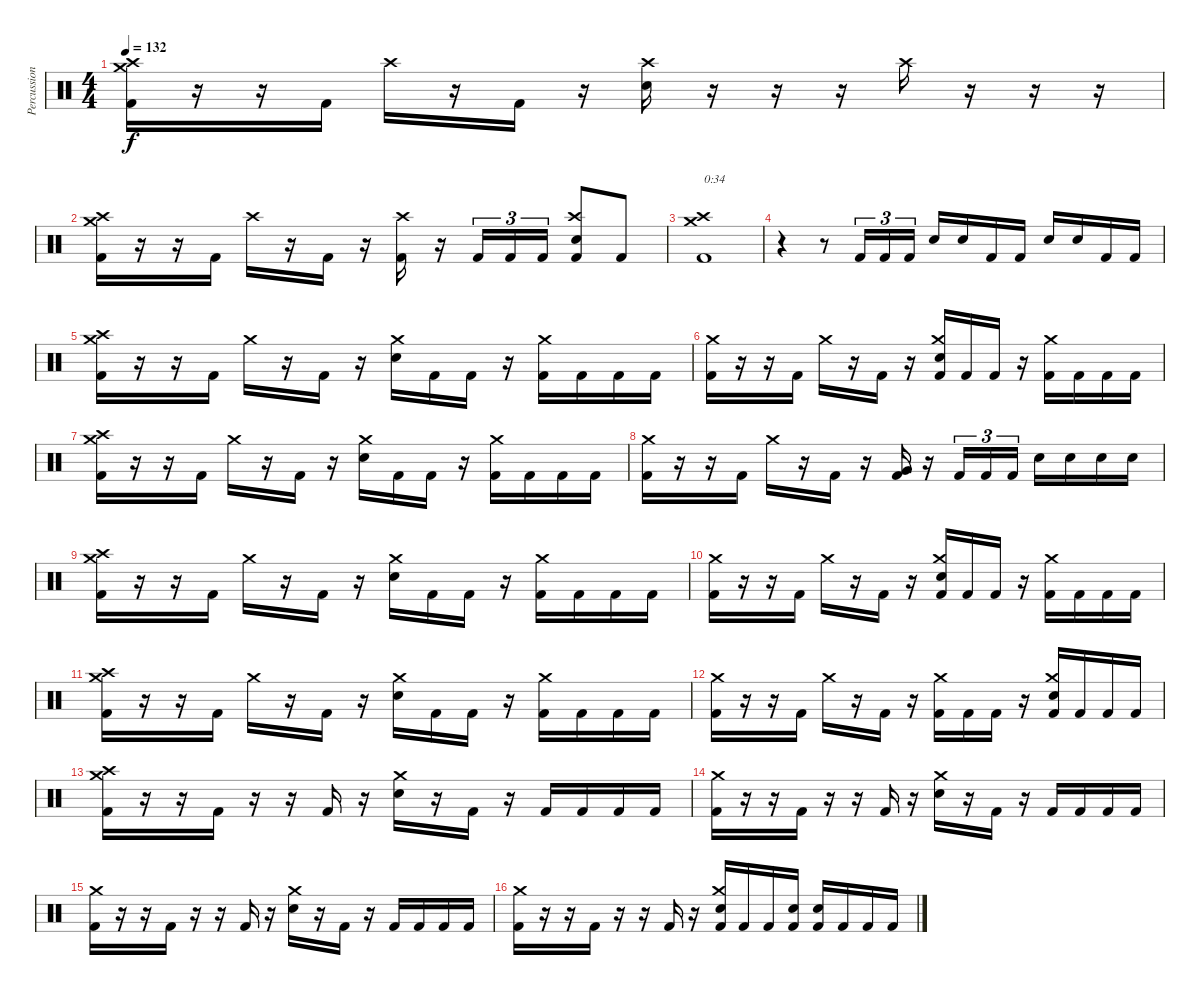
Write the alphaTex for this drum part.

\track ("Percussion" "Percussion") {instrument percussion}
\staff {score}
\articulation defaults
\ts (4 4)
\tempo 132
\clef neutral
\ks c
("Kick (hit) 2" "Crash medium (hit)" "Crash high (hit)").16{dy f} r.16 r.16 "Kick (hit) 2".16 "Crash high (hit)".16 r.16 "Kick (hit) 2".16 r.16 ("Snare (hit) 2" "Crash high (hit)").16 r.16 r.16 r.16 "Crash high (hit)".16 r.16 r.16 r.16 |
("Kick (hit) 2" "Crash medium (hit)" "Crash high (hit)").16 r.16 r.16 "Kick (hit) 2".16 "Crash high (hit)".16 r.16 "Kick (hit) 2".16 r.16 ("Kick (hit) 2" "Crash high (hit)").16 r.16 "Kick (hit) 2".16{tu (3 2)} "Kick (hit) 2".16{tu (3 2)} "Kick (hit) 2".16{tu (3 2)} ("Kick (hit) 2" "Snare (hit) 2" "Crash high (hit)").8 "Kick (hit) 2".8 |
("Kick (hit) 2" "Crash medium (hit)" "Crash high (hit)").1{txt "0:34"} |
r.4 r.8 "Kick (hit) 2".16{tu (3 2)} "Kick (hit) 2".16{tu (3 2)} "Kick (hit) 2".16{tu (3 2)} "Snare (hit) 2".16 "Snare (hit) 2".16 "Kick (hit) 2".16 "Kick (hit) 2".16 "Snare (hit) 2".16 "Snare (hit) 2".16 "Kick (hit) 2".16 "Kick (hit) 2".16 |
("Kick (hit) 2" "Crash high (hit)" "Crash medium (hit)").16 r.16 r.16 "Kick (hit) 2".16 "Crash medium (hit)".16 r.16 "Kick (hit) 2".16 r.16 ("Snare (hit) 2" "Crash medium (hit)").16 "Kick (hit) 2".16 "Kick (hit) 2".16 r.16 ("Kick (hit) 2" "Crash medium (hit)").16 "Kick (hit) 2".16 "Kick (hit) 2".16 "Kick (hit) 2".16 |
("Kick (hit) 2" "Crash medium (hit)").16 r.16 r.16 "Kick (hit) 2".16 "Crash medium (hit)".16 r.16 "Kick (hit) 2".16 r.16 ("Kick (hit) 2" "Snare (hit) 2" "Crash medium (hit)").16 "Kick (hit) 2".16 "Kick (hit) 2".16 r.16 ("Kick (hit) 2" "Crash medium (hit)").16 "Kick (hit) 2".16 "Kick (hit) 2".16 "Kick (hit) 2".16 |
("Kick (hit) 2" "Crash high (hit)" "Crash medium (hit)").16 r.16 r.16 "Kick (hit) 2".16 "Crash medium (hit)".16 r.16 "Kick (hit) 2".16 r.16 ("Snare (hit) 2" "Crash medium (hit)").16 "Kick (hit) 2".16 "Kick (hit) 2".16 r.16 ("Kick (hit) 2" "Crash medium (hit)").16 "Kick (hit) 2".16 "Kick (hit) 2".16 "Kick (hit) 2".16 |
("Kick (hit) 2" "Crash medium (hit)").16 r.16 r.16 "Kick (hit) 2".16 "Crash medium (hit)".16 r.16 "Kick (hit) 2".16 r.16 ("Kick (hit) 2" "Very Low Tom (hit)").16 r.16 "Kick (hit) 2".16{tu (3 2)} "Kick (hit) 2".16{tu (3 2)} "Kick (hit) 2".16{tu (3 2)} "Snare (hit) 2".16 "Snare (hit) 2".16 "Snare (hit) 2".16 "Snare (hit) 2".16 |
("Kick (hit) 2" "Crash high (hit)" "Crash medium (hit)").16 r.16 r.16 "Kick (hit) 2".16 "Crash medium (hit)".16 r.16 "Kick (hit) 2".16 r.16 ("Snare (hit) 2" "Crash medium (hit)").16 "Kick (hit) 2".16 "Kick (hit) 2".16 r.16 ("Kick (hit) 2" "Crash medium (hit)").16 "Kick (hit) 2".16 "Kick (hit) 2".16 "Kick (hit) 2".16 |
("Kick (hit) 2" "Crash medium (hit)").16 r.16 r.16 "Kick (hit) 2".16 "Crash medium (hit)".16 r.16 "Kick (hit) 2".16 r.16 ("Kick (hit) 2" "Snare (hit) 2" "Crash medium (hit)").16 "Kick (hit) 2".16 "Kick (hit) 2".16 r.16 ("Kick (hit) 2" "Crash medium (hit)").16 "Kick (hit) 2".16 "Kick (hit) 2".16 "Kick (hit) 2".16 |
("Kick (hit) 2" "Crash high (hit)" "Crash medium (hit)").16 r.16 r.16 "Kick (hit) 2".16 "Crash medium (hit)".16 r.16 "Kick (hit) 2".16 r.16 ("Snare (hit) 2" "Crash medium (hit)").16 "Kick (hit) 2".16 "Kick (hit) 2".16 r.16 ("Kick (hit) 2" "Crash medium (hit)").16 "Kick (hit) 2".16 "Kick (hit) 2".16 "Kick (hit) 2".16 |
("Kick (hit) 2" "Crash medium (hit)").16 r.16 r.16 "Kick (hit) 2".16 "Crash medium (hit)".16 r.16 "Kick (hit) 2".16 r.16 ("Kick (hit) 2" "Crash medium (hit)").16 "Kick (hit) 2".16 "Kick (hit) 2".16 r.16 ("Kick (hit) 2" "Snare (hit) 2" "Crash medium (hit)").16 "Kick (hit) 2".16 "Kick (hit) 2".16 "Kick (hit) 2".16 |
("Kick (hit) 2" "Crash high (hit)" "Crash medium (hit)").16 r.16 r.16 "Kick (hit) 2".16 r.16 r.16 "Kick (hit) 2".16 r.16 ("Snare (hit) 2" "Crash medium (hit)").16 r.16 "Kick (hit) 2".16 r.16 "Kick (hit) 2".16 "Kick (hit) 2".16 "Kick (hit) 2".16 "Kick (hit) 2".16 |
("Kick (hit) 2" "Crash medium (hit)").16 r.16 r.16 "Kick (hit) 2".16 r.16 r.16 "Kick (hit) 2".16 r.16 ("Snare (hit) 2" "Crash medium (hit)").16 r.16 "Kick (hit) 2".16 r.16 "Kick (hit) 2".16 "Kick (hit) 2".16 "Kick (hit) 2".16 "Kick (hit) 2".16 |
("Kick (hit) 2" "Crash medium (hit)").16 r.16 r.16 "Kick (hit) 2".16 r.16 r.16 "Kick (hit) 2".16 r.16 ("Snare (hit) 2" "Crash medium (hit)").16 r.16 "Kick (hit) 2".16 r.16 "Kick (hit) 2".16 "Kick (hit) 2".16 "Kick (hit) 2".16 "Kick (hit) 2".16 |
("Kick (hit) 2" "Crash medium (hit)").16 r.16 r.16 "Kick (hit) 2".16 r.16 r.16 "Kick (hit) 2".16 r.16 ("Kick (hit) 2" "Snare (hit) 2" "Crash medium (hit)").16 "Kick (hit) 2".16 "Kick (hit) 2".16 ("Kick (hit) 2" "Snare (hit) 2").16 ("Kick (hit) 2" "Snare (hit) 2").16 "Kick (hit) 2".16 "Kick (hit) 2".16 "Kick (hit) 2".16
